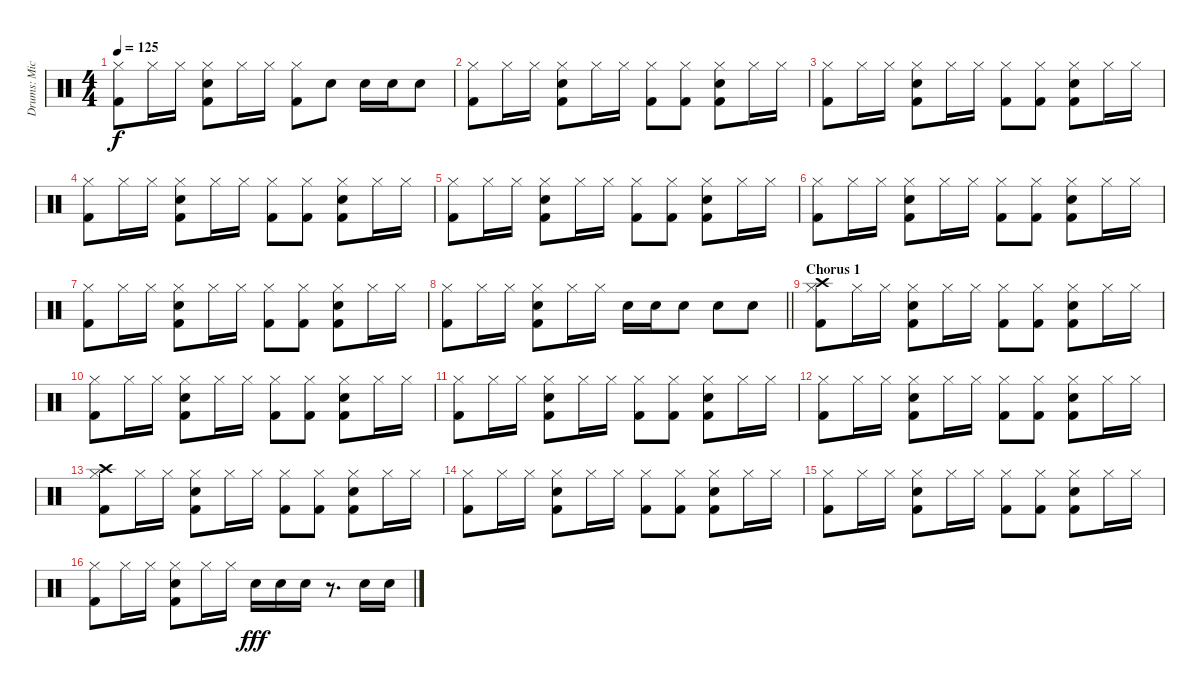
\track ("Drums: Mick Fleetwood" "Drums: Mic") {instrument percussion}
\staff {score}
\articulation defaults
\ts (4 4)
\tempo 125
\clef neutral
\ks c
("Hi-Hat (closed)" "Kick (hit) 2").8{dy f} "Hi-Hat (closed)".16 "Hi-Hat (closed)".16 ("Hi-Hat (closed)" "Snare (hit) 2" "Kick (hit) 2").8 "Hi-Hat (closed)".16 "Hi-Hat (closed)".16 ("Hi-Hat (closed)" "Kick (hit) 2").8 "Snare (hit) 2".8 "Snare (hit) 2".16 "Snare (hit) 2".16 "Snare (hit) 2".8 |
("Hi-Hat (closed)" "Kick (hit) 2").8 "Hi-Hat (closed)".16 "Hi-Hat (closed)".16 ("Hi-Hat (closed)" "Snare (hit) 2" "Kick (hit) 2").8 "Hi-Hat (closed)".16 "Hi-Hat (closed)".16 ("Hi-Hat (closed)" "Kick (hit) 2").8 ("Hi-Hat (closed)" "Kick (hit) 2").8 ("Hi-Hat (closed)" "Snare (hit) 2" "Kick (hit) 2").8 "Hi-Hat (closed)".16 "Hi-Hat (closed)".16 |
("Hi-Hat (closed)" "Kick (hit) 2").8 "Hi-Hat (closed)".16 "Hi-Hat (closed)".16 ("Hi-Hat (closed)" "Snare (hit) 2" "Kick (hit) 2").8 "Hi-Hat (closed)".16 "Hi-Hat (closed)".16 ("Hi-Hat (closed)" "Kick (hit) 2").8 ("Hi-Hat (closed)" "Kick (hit) 2").8 ("Hi-Hat (closed)" "Snare (hit) 2" "Kick (hit) 2").8 "Hi-Hat (closed)".16 "Hi-Hat (closed)".16 |
("Hi-Hat (closed)" "Kick (hit) 2").8 "Hi-Hat (closed)".16 "Hi-Hat (closed)".16 ("Hi-Hat (closed)" "Snare (hit) 2" "Kick (hit) 2").8 "Hi-Hat (closed)".16 "Hi-Hat (closed)".16 ("Hi-Hat (closed)" "Kick (hit) 2").8 ("Hi-Hat (closed)" "Kick (hit) 2").8 ("Hi-Hat (closed)" "Snare (hit) 2" "Kick (hit) 2").8 "Hi-Hat (closed)".16 "Hi-Hat (closed)".16 |
("Hi-Hat (closed)" "Kick (hit) 2").8 "Hi-Hat (closed)".16 "Hi-Hat (closed)".16 ("Hi-Hat (closed)" "Snare (hit) 2" "Kick (hit) 2").8 "Hi-Hat (closed)".16 "Hi-Hat (closed)".16 ("Hi-Hat (closed)" "Kick (hit) 2").8 ("Hi-Hat (closed)" "Kick (hit) 2").8 ("Hi-Hat (closed)" "Snare (hit) 2" "Kick (hit) 2").8 "Hi-Hat (closed)".16 "Hi-Hat (closed)".16 |
("Hi-Hat (closed)" "Kick (hit) 2").8 "Hi-Hat (closed)".16 "Hi-Hat (closed)".16 ("Hi-Hat (closed)" "Snare (hit) 2" "Kick (hit) 2").8 "Hi-Hat (closed)".16 "Hi-Hat (closed)".16 ("Hi-Hat (closed)" "Kick (hit) 2").8 ("Hi-Hat (closed)" "Kick (hit) 2").8 ("Hi-Hat (closed)" "Snare (hit) 2" "Kick (hit) 2").8 "Hi-Hat (closed)".16 "Hi-Hat (closed)".16 |
("Hi-Hat (closed)" "Kick (hit) 2").8 "Hi-Hat (closed)".16 "Hi-Hat (closed)".16 ("Hi-Hat (closed)" "Snare (hit) 2" "Kick (hit) 2").8 "Hi-Hat (closed)".16 "Hi-Hat (closed)".16 ("Hi-Hat (closed)" "Kick (hit) 2").8 ("Hi-Hat (closed)" "Kick (hit) 2").8 ("Hi-Hat (closed)" "Snare (hit) 2" "Kick (hit) 2").8 "Hi-Hat (closed)".16 "Hi-Hat (closed)".16 |
\barLineRight lightlight
("Hi-Hat (closed)" "Kick (hit) 2").8 "Hi-Hat (closed)".16 "Hi-Hat (closed)".16 ("Hi-Hat (closed)" "Snare (hit) 2" "Kick (hit) 2").8 "Hi-Hat (closed)".16 "Hi-Hat (closed)".16 "Snare (hit) 2".16 "Snare (hit) 2".16 "Snare (hit) 2".8 "Snare (hit) 2".8 "Snare (hit) 2".8 |
\section ("" "Chorus 1")
("Crash high (hit)" "Hi-Hat (closed)" "Kick (hit) 2").8 "Hi-Hat (closed)".16 "Hi-Hat (closed)".16 ("Hi-Hat (closed)" "Snare (hit) 2" "Kick (hit) 2").8 "Hi-Hat (closed)".16 "Hi-Hat (closed)".16 ("Hi-Hat (closed)" "Kick (hit) 2").8 ("Hi-Hat (closed)" "Kick (hit) 2").8 ("Hi-Hat (closed)" "Snare (hit) 2" "Kick (hit) 2").8 "Hi-Hat (closed)".16 "Hi-Hat (closed)".16 |
("Hi-Hat (closed)" "Kick (hit) 2").8 "Hi-Hat (closed)".16 "Hi-Hat (closed)".16 ("Hi-Hat (closed)" "Snare (hit) 2" "Kick (hit) 2").8 "Hi-Hat (closed)".16 "Hi-Hat (closed)".16 ("Hi-Hat (closed)" "Kick (hit) 2").8 ("Hi-Hat (closed)" "Kick (hit) 2").8 ("Hi-Hat (closed)" "Snare (hit) 2" "Kick (hit) 2").8 "Hi-Hat (closed)".16 "Hi-Hat (closed)".16 |
("Hi-Hat (closed)" "Kick (hit) 2").8 "Hi-Hat (closed)".16 "Hi-Hat (closed)".16 ("Hi-Hat (closed)" "Snare (hit) 2" "Kick (hit) 2").8 "Hi-Hat (closed)".16 "Hi-Hat (closed)".16 ("Hi-Hat (closed)" "Kick (hit) 2").8 ("Hi-Hat (closed)" "Kick (hit) 2").8 ("Hi-Hat (closed)" "Snare (hit) 2" "Kick (hit) 2").8 "Hi-Hat (closed)".16 "Hi-Hat (closed)".16 |
("Hi-Hat (closed)" "Kick (hit) 2").8 "Hi-Hat (closed)".16 "Hi-Hat (closed)".16 ("Hi-Hat (closed)" "Snare (hit) 2" "Kick (hit) 2").8 "Hi-Hat (closed)".16 "Hi-Hat (closed)".16 ("Hi-Hat (closed)" "Kick (hit) 2").8 ("Hi-Hat (closed)" "Kick (hit) 2").8 ("Hi-Hat (closed)" "Snare (hit) 2" "Kick (hit) 2").8 "Hi-Hat (closed)".16 "Hi-Hat (closed)".16 |
("Crash high (hit)" "Hi-Hat (closed)" "Kick (hit) 2").8 "Hi-Hat (closed)".16 "Hi-Hat (closed)".16 ("Hi-Hat (closed)" "Snare (hit) 2" "Kick (hit) 2").8 "Hi-Hat (closed)".16 "Hi-Hat (closed)".16 ("Hi-Hat (closed)" "Kick (hit) 2").8 ("Hi-Hat (closed)" "Kick (hit) 2").8 ("Hi-Hat (closed)" "Snare (hit) 2" "Kick (hit) 2").8 "Hi-Hat (closed)".16 "Hi-Hat (closed)".16 |
("Hi-Hat (closed)" "Kick (hit) 2").8 "Hi-Hat (closed)".16 "Hi-Hat (closed)".16 ("Hi-Hat (closed)" "Snare (hit) 2" "Kick (hit) 2").8 "Hi-Hat (closed)".16 "Hi-Hat (closed)".16 ("Hi-Hat (closed)" "Kick (hit) 2").8 ("Hi-Hat (closed)" "Kick (hit) 2").8 ("Hi-Hat (closed)" "Snare (hit) 2" "Kick (hit) 2").8 "Hi-Hat (closed)".16 "Hi-Hat (closed)".16 |
("Hi-Hat (closed)" "Kick (hit) 2").8 "Hi-Hat (closed)".16 "Hi-Hat (closed)".16 ("Hi-Hat (closed)" "Snare (hit) 2" "Kick (hit) 2").8 "Hi-Hat (closed)".16 "Hi-Hat (closed)".16 ("Hi-Hat (closed)" "Kick (hit) 2").8 ("Hi-Hat (closed)" "Kick (hit) 2").8 ("Hi-Hat (closed)" "Snare (hit) 2" "Kick (hit) 2").8 "Hi-Hat (closed)".16 "Hi-Hat (closed)".16 |
("Hi-Hat (closed)" "Kick (hit) 2").8 "Hi-Hat (closed)".16 "Hi-Hat (closed)".16 ("Hi-Hat (closed)" "Snare (hit) 2" "Kick (hit) 2").8 "Hi-Hat (closed)".16 "Hi-Hat (closed)".16 "Snare (hit) 2".16{dy fff} "Snare (hit) 2".16 "Snare (hit) 2".16 r.8{d} "Snare (hit) 2".16 "Snare (hit) 2".16
